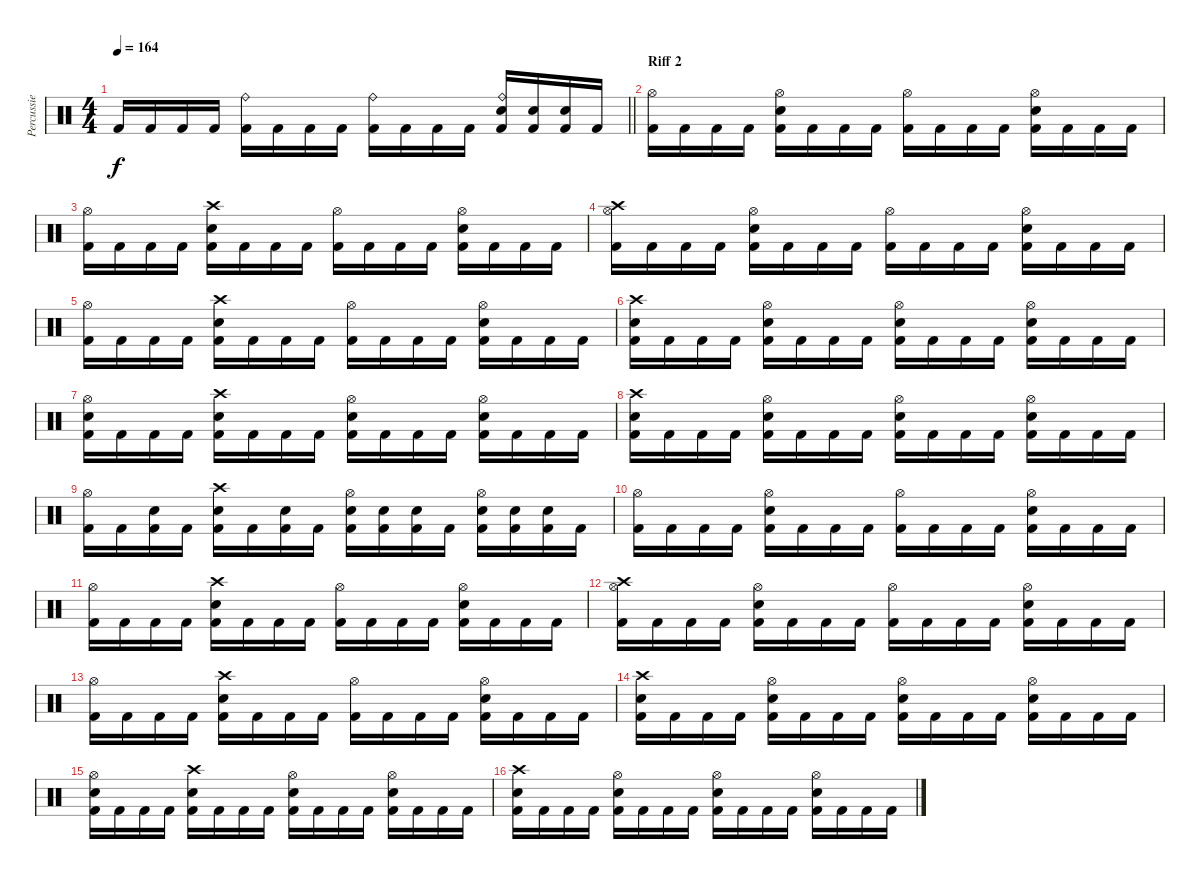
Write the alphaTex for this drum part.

\track ("Percussie" "Percussie") {instrument percussion}
\staff {score}
\articulation defaults
\ts (4 4)
\tempo 164
\clef neutral
\barLineRight lightlight
\ks c "Kick (hit) 2".16{dy f} "Kick (hit) 2".16 "Kick (hit) 2".16 "Kick (hit) 2".16
("Ride (bell)" "Kick (hit) 2").16 "Kick (hit) 2".16 "Kick (hit) 2".16 "Kick (hit) 2".16 ("Ride (bell)" "Kick (hit) 2").16 "Kick (hit) 2".16 "Kick (hit) 2".16 "Kick (hit) 2".16 ("Ride (bell)" "Electric Snare (hit)" "Kick (hit) 2").16 ("Electric Snare (hit)" "Kick (hit) 2").16 ("Electric Snare (hit)" "Kick (hit) 2").16 "Kick (hit) 2".16 |
\section ("" "Riff 2")
("Hi-Hat (open)" "Kick (hit) 2").16 "Kick (hit) 2".16 "Kick (hit) 2".16 "Kick (hit) 2".16 ("Hi-Hat (open)" "Electric Snare (hit)" "Kick (hit) 2").16 "Kick (hit) 2".16 "Kick (hit) 2".16 "Kick (hit) 2".16 ("Hi-Hat (open)" "Kick (hit) 2").16 "Kick (hit) 2".16 "Kick (hit) 2".16 "Kick (hit) 2".16 ("Hi-Hat (open)" "Electric Snare (hit)" "Kick (hit) 2").16 "Kick (hit) 2".16 "Kick (hit) 2".16 "Kick (hit) 2".16 |
("Hi-Hat (open)" "Kick (hit) 2").16 "Kick (hit) 2".16 "Kick (hit) 2".16 "Kick (hit) 2".16 ("Crash high (hit)" "Electric Snare (hit)" "Kick (hit) 2").16 "Kick (hit) 2".16 "Kick (hit) 2".16 "Kick (hit) 2".16 ("Hi-Hat (open)" "Kick (hit) 2").16 "Kick (hit) 2".16 "Kick (hit) 2".16 "Kick (hit) 2".16 ("Hi-Hat (open)" "Electric Snare (hit)" "Kick (hit) 2").16 "Kick (hit) 2".16 "Kick (hit) 2".16 "Kick (hit) 2".16 |
("Hi-Hat (open)" "Crash high (hit)" "Kick (hit) 2").16 "Kick (hit) 2".16 "Kick (hit) 2".16 "Kick (hit) 2".16 ("Hi-Hat (open)" "Electric Snare (hit)" "Kick (hit) 2").16 "Kick (hit) 2".16 "Kick (hit) 2".16 "Kick (hit) 2".16 ("Hi-Hat (open)" "Kick (hit) 2").16 "Kick (hit) 2".16 "Kick (hit) 2".16 "Kick (hit) 2".16 ("Hi-Hat (open)" "Electric Snare (hit)" "Kick (hit) 2").16 "Kick (hit) 2".16 "Kick (hit) 2".16 "Kick (hit) 2".16 |
("Hi-Hat (open)" "Kick (hit) 2").16 "Kick (hit) 2".16 "Kick (hit) 2".16 "Kick (hit) 2".16 ("Crash high (hit)" "Electric Snare (hit)" "Kick (hit) 2").16 "Kick (hit) 2".16 "Kick (hit) 2".16 "Kick (hit) 2".16 ("Hi-Hat (open)" "Kick (hit) 2").16 "Kick (hit) 2".16 "Kick (hit) 2".16 "Kick (hit) 2".16 ("Hi-Hat (open)" "Electric Snare (hit)" "Kick (hit) 2").16 "Kick (hit) 2".16 "Kick (hit) 2".16 "Kick (hit) 2".16 |
("Crash high (hit)" "Electric Snare (hit)" "Kick (hit) 2").16 "Kick (hit) 2".16 "Kick (hit) 2".16 "Kick (hit) 2".16 ("Hi-Hat (open)" "Electric Snare (hit)" "Kick (hit) 2").16 "Kick (hit) 2".16 "Kick (hit) 2".16 "Kick (hit) 2".16 ("Hi-Hat (open)" "Electric Snare (hit)" "Kick (hit) 2").16 "Kick (hit) 2".16 "Kick (hit) 2".16 "Kick (hit) 2".16 ("Hi-Hat (open)" "Electric Snare (hit)" "Kick (hit) 2").16 "Kick (hit) 2".16 "Kick (hit) 2".16 "Kick (hit) 2".16 |
("Hi-Hat (open)" "Electric Snare (hit)" "Kick (hit) 2").16 "Kick (hit) 2".16 "Kick (hit) 2".16 "Kick (hit) 2".16 ("Crash high (hit)" "Electric Snare (hit)" "Kick (hit) 2").16 "Kick (hit) 2".16 "Kick (hit) 2".16 "Kick (hit) 2".16 ("Hi-Hat (open)" "Electric Snare (hit)" "Kick (hit) 2").16 "Kick (hit) 2".16 "Kick (hit) 2".16 "Kick (hit) 2".16 ("Hi-Hat (open)" "Electric Snare (hit)" "Kick (hit) 2").16 "Kick (hit) 2".16 "Kick (hit) 2".16 "Kick (hit) 2".16 |
("Crash high (hit)" "Electric Snare (hit)" "Kick (hit) 2").16 "Kick (hit) 2".16 "Kick (hit) 2".16 "Kick (hit) 2".16 ("Hi-Hat (open)" "Electric Snare (hit)" "Kick (hit) 2").16 "Kick (hit) 2".16 "Kick (hit) 2".16 "Kick (hit) 2".16 ("Hi-Hat (open)" "Electric Snare (hit)" "Kick (hit) 2").16 "Kick (hit) 2".16 "Kick (hit) 2".16 "Kick (hit) 2".16 ("Hi-Hat (open)" "Electric Snare (hit)" "Kick (hit) 2").16 "Kick (hit) 2".16 "Kick (hit) 2".16 "Kick (hit) 2".16 |
("Hi-Hat (open)" "Kick (hit) 2").16 "Kick (hit) 2".16 ("Electric Snare (hit)" "Kick (hit) 2").16 "Kick (hit) 2".16 ("Crash high (hit)" "Electric Snare (hit)" "Kick (hit) 2").16 "Kick (hit) 2".16 ("Electric Snare (hit)" "Kick (hit) 2").16 "Kick (hit) 2".16 ("Hi-Hat (open)" "Electric Snare (hit)" "Kick (hit) 2").16 ("Electric Snare (hit)" "Kick (hit) 2").16 ("Electric Snare (hit)" "Kick (hit) 2").16 "Kick (hit) 2".16 ("Hi-Hat (open)" "Electric Snare (hit)" "Kick (hit) 2").16 ("Electric Snare (hit)" "Kick (hit) 2").16 ("Electric Snare (hit)" "Kick (hit) 2").16 "Kick (hit) 2".16 |
("Hi-Hat (open)" "Kick (hit) 2").16 "Kick (hit) 2".16 "Kick (hit) 2".16 "Kick (hit) 2".16 ("Hi-Hat (open)" "Electric Snare (hit)" "Kick (hit) 2").16 "Kick (hit) 2".16 "Kick (hit) 2".16 "Kick (hit) 2".16 ("Hi-Hat (open)" "Kick (hit) 2").16 "Kick (hit) 2".16 "Kick (hit) 2".16 "Kick (hit) 2".16 ("Hi-Hat (open)" "Electric Snare (hit)" "Kick (hit) 2").16 "Kick (hit) 2".16 "Kick (hit) 2".16 "Kick (hit) 2".16 |
("Hi-Hat (open)" "Kick (hit) 2").16 "Kick (hit) 2".16 "Kick (hit) 2".16 "Kick (hit) 2".16 ("Crash high (hit)" "Electric Snare (hit)" "Kick (hit) 2").16 "Kick (hit) 2".16 "Kick (hit) 2".16 "Kick (hit) 2".16 ("Hi-Hat (open)" "Kick (hit) 2").16 "Kick (hit) 2".16 "Kick (hit) 2".16 "Kick (hit) 2".16 ("Hi-Hat (open)" "Electric Snare (hit)" "Kick (hit) 2").16 "Kick (hit) 2".16 "Kick (hit) 2".16 "Kick (hit) 2".16 |
("Hi-Hat (open)" "Crash high (hit)" "Kick (hit) 2").16 "Kick (hit) 2".16 "Kick (hit) 2".16 "Kick (hit) 2".16 ("Hi-Hat (open)" "Electric Snare (hit)" "Kick (hit) 2").16 "Kick (hit) 2".16 "Kick (hit) 2".16 "Kick (hit) 2".16 ("Hi-Hat (open)" "Kick (hit) 2").16 "Kick (hit) 2".16 "Kick (hit) 2".16 "Kick (hit) 2".16 ("Hi-Hat (open)" "Electric Snare (hit)" "Kick (hit) 2").16 "Kick (hit) 2".16 "Kick (hit) 2".16 "Kick (hit) 2".16 |
("Hi-Hat (open)" "Kick (hit) 2").16 "Kick (hit) 2".16 "Kick (hit) 2".16 "Kick (hit) 2".16 ("Crash high (hit)" "Electric Snare (hit)" "Kick (hit) 2").16 "Kick (hit) 2".16 "Kick (hit) 2".16 "Kick (hit) 2".16 ("Hi-Hat (open)" "Kick (hit) 2").16 "Kick (hit) 2".16 "Kick (hit) 2".16 "Kick (hit) 2".16 ("Hi-Hat (open)" "Electric Snare (hit)" "Kick (hit) 2").16 "Kick (hit) 2".16 "Kick (hit) 2".16 "Kick (hit) 2".16 |
("Crash high (hit)" "Electric Snare (hit)" "Kick (hit) 2").16 "Kick (hit) 2".16 "Kick (hit) 2".16 "Kick (hit) 2".16 ("Hi-Hat (open)" "Electric Snare (hit)" "Kick (hit) 2").16 "Kick (hit) 2".16 "Kick (hit) 2".16 "Kick (hit) 2".16 ("Hi-Hat (open)" "Electric Snare (hit)" "Kick (hit) 2").16 "Kick (hit) 2".16 "Kick (hit) 2".16 "Kick (hit) 2".16 ("Hi-Hat (open)" "Electric Snare (hit)" "Kick (hit) 2").16 "Kick (hit) 2".16 "Kick (hit) 2".16 "Kick (hit) 2".16 |
("Hi-Hat (open)" "Electric Snare (hit)" "Kick (hit) 2").16 "Kick (hit) 2".16 "Kick (hit) 2".16 "Kick (hit) 2".16 ("Crash high (hit)" "Electric Snare (hit)" "Kick (hit) 2").16 "Kick (hit) 2".16 "Kick (hit) 2".16 "Kick (hit) 2".16 ("Hi-Hat (open)" "Electric Snare (hit)" "Kick (hit) 2").16 "Kick (hit) 2".16 "Kick (hit) 2".16 "Kick (hit) 2".16 ("Hi-Hat (open)" "Electric Snare (hit)" "Kick (hit) 2").16 "Kick (hit) 2".16 "Kick (hit) 2".16 "Kick (hit) 2".16 |
("Crash high (hit)" "Electric Snare (hit)" "Kick (hit) 2").16 "Kick (hit) 2".16 "Kick (hit) 2".16 "Kick (hit) 2".16 ("Hi-Hat (open)" "Electric Snare (hit)" "Kick (hit) 2").16 "Kick (hit) 2".16 "Kick (hit) 2".16 "Kick (hit) 2".16 ("Hi-Hat (open)" "Electric Snare (hit)" "Kick (hit) 2").16 "Kick (hit) 2".16 "Kick (hit) 2".16 "Kick (hit) 2".16 ("Hi-Hat (open)" "Electric Snare (hit)" "Kick (hit) 2").16 "Kick (hit) 2".16 "Kick (hit) 2".16 "Kick (hit) 2".16
